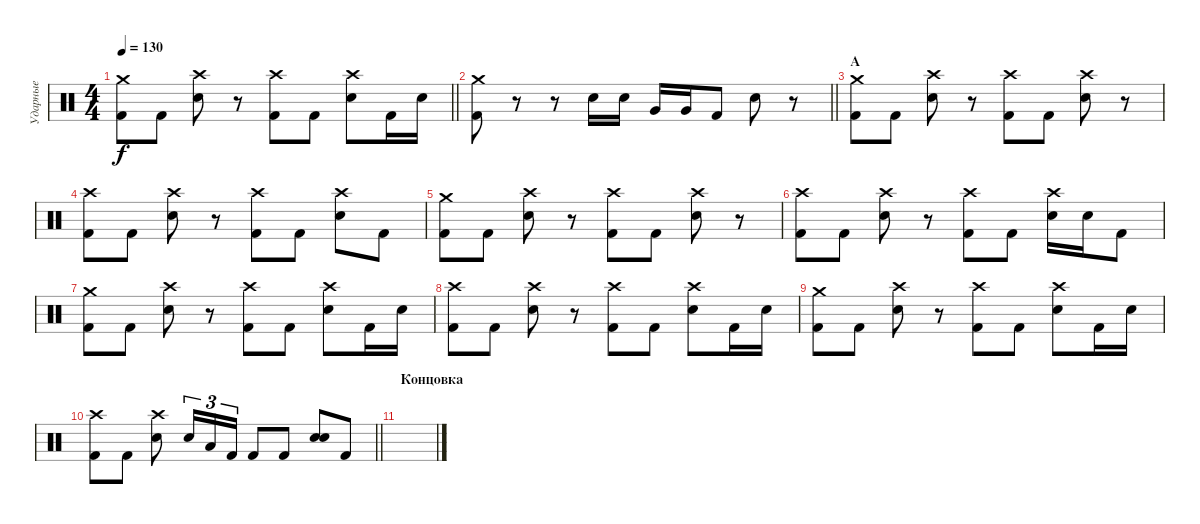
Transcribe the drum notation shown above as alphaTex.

\track ("Ударные" "Ударные") {instrument percussion}
\staff {score}
\articulation defaults
\ts (4 4)
\tempo 130
\clef neutral
\barLineRight lightlight
\ks c
("Crash medium (hit)" "Kick (hit) 2").8{dy f} "Kick (hit) 2".8 ("Crash high (hit)" "Electric Snare (hit)").8 r.8 ("Crash high (hit)" "Kick (hit) 2").8 "Kick (hit) 2".8 ("Crash high (hit)" "Electric Snare (hit)").8 "Kick (hit) 2".16 "Electric Snare (hit)".16 |
\section ("" "")
\barLineRight lightlight
("Crash medium (hit)" "Kick (hit) 2").8 r.8 r.8 "Electric Snare (hit)".16 "Electric Snare (hit)".16 "Very Low Tom (hit)".16 "Very Low Tom (hit)".16 "Kick (hit) 2".8 "Electric Snare (hit)".8 r.8 |
\section ("" "A")
("Crash medium (hit)" "Kick (hit) 2").8 "Kick (hit) 2".8 ("Crash high (hit)" "Electric Snare (hit)").8 r.8 ("Crash high (hit)" "Kick (hit) 2").8 "Kick (hit) 2".8 ("Crash high (hit)" "Electric Snare (hit)").8 r.8 |
("Crash high (hit)" "Kick (hit) 2").8 "Kick (hit) 2".8 ("Crash high (hit)" "Electric Snare (hit)").8 r.8 ("Crash high (hit)" "Kick (hit) 2").8 "Kick (hit) 2".8 ("Crash high (hit)" "Electric Snare (hit)").8 "Kick (hit) 2".8 |
("Crash medium (hit)" "Kick (hit) 2").8 "Kick (hit) 2".8 ("Crash high (hit)" "Electric Snare (hit)").8 r.8 ("Crash high (hit)" "Kick (hit) 2").8 "Kick (hit) 2".8 ("Crash high (hit)" "Electric Snare (hit)").8 r.8 |
("Crash high (hit)" "Kick (hit) 2").8 "Kick (hit) 2".8 ("Crash high (hit)" "Electric Snare (hit)").8 r.8 ("Crash high (hit)" "Kick (hit) 2").8 "Kick (hit) 2".8 ("Crash high (hit)" "Electric Snare (hit)").16 "Electric Snare (hit)".16 "Kick (hit) 2".8 |
("Crash medium (hit)" "Kick (hit) 2").8 "Kick (hit) 2".8 ("Crash high (hit)" "Electric Snare (hit)").8 r.8 ("Crash high (hit)" "Kick (hit) 2").8 "Kick (hit) 2".8 ("Crash high (hit)" "Electric Snare (hit)").8 "Kick (hit) 2".16 "Electric Snare (hit)".16 |
("Crash high (hit)" "Kick (hit) 2").8 "Kick (hit) 2".8 ("Crash high (hit)" "Electric Snare (hit)").8 r.8 ("Crash high (hit)" "Kick (hit) 2").8 "Kick (hit) 2".8 ("Crash high (hit)" "Electric Snare (hit)").8 "Kick (hit) 2".16 "Electric Snare (hit)".16 |
("Crash medium (hit)" "Kick (hit) 2").8 "Kick (hit) 2".8 ("Crash high (hit)" "Electric Snare (hit)").8 r.8 ("Crash high (hit)" "Kick (hit) 2").8 "Kick (hit) 2".8 ("Crash high (hit)" "Electric Snare (hit)").8 "Kick (hit) 2".16 "Electric Snare (hit)".16 |
\barLineRight lightlight
("Crash high (hit)" "Kick (hit) 2").8 "Kick (hit) 2".8 ("Crash high (hit)" "Electric Snare (hit)").8 "Electric Snare (hit)".16{tu (3 2)} "Low Tom (hit)".16{tu (3 2)} "Kick (hit) 2".16{tu (3 2)} "Kick (hit) 2".8 "Kick (hit) 2".8 ("Electric Snare (hit)" "Electric Snare (hit)").8{bd 60} "Kick (hit) 2".8 |
\section ("" "Концовка")
